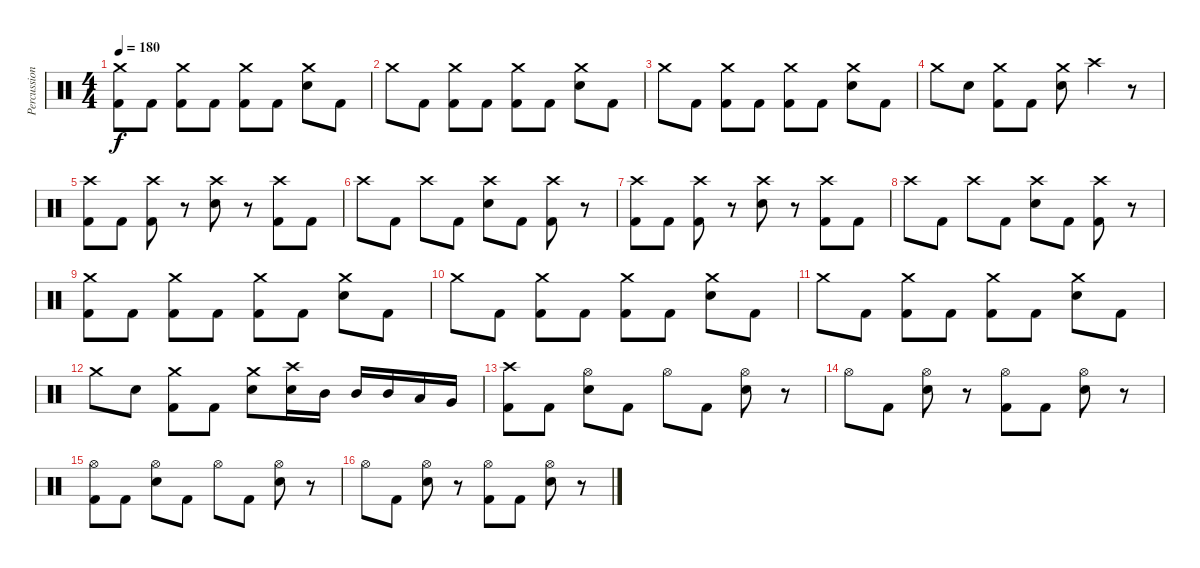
\track ("Percussion" "Percussion") {instrument percussion}
\staff {score}
\articulation defaults
\ts (4 4)
\tempo 180
\clef neutral
\ks c
("Crash medium (hit)" "Kick (hit) 2").8{dy f} "Kick (hit) 2".8 ("Crash medium (hit)" "Kick (hit) 2").8 "Kick (hit) 2".8 ("Crash medium (hit)" "Kick (hit) 2").8 "Kick (hit) 2".8 ("Crash medium (hit)" "Snare (hit) 2").8 "Kick (hit) 2".8 |
"Crash medium (hit)".8 "Kick (hit) 2".8 ("Crash medium (hit)" "Kick (hit) 2").8 "Kick (hit) 2".8 ("Crash medium (hit)" "Kick (hit) 2").8 "Kick (hit) 2".8 ("Crash medium (hit)" "Snare (hit) 2").8 "Kick (hit) 2".8 |
"Crash medium (hit)".8 "Kick (hit) 2".8 ("Crash medium (hit)" "Kick (hit) 2").8 "Kick (hit) 2".8 ("Crash medium (hit)" "Kick (hit) 2").8 "Kick (hit) 2".8 ("Crash medium (hit)" "Snare (hit) 2").8 "Kick (hit) 2".8 |
"Crash medium (hit)".8 "Snare (hit) 2".8 ("Crash medium (hit)" "Kick (hit) 2").8 "Kick (hit) 2".8 ("Crash medium (hit)" "Snare (hit) 2").8 "Crash high (hit)".4 r.8 |
("Crash high (hit)" "Kick (hit) 2").8 "Kick (hit) 2".8 ("Crash high (hit)" "Kick (hit) 2").8 r.8 ("Crash high (hit)" "Snare (hit) 2").8 r.8 ("Crash high (hit)" "Kick (hit) 2").8 "Kick (hit) 2".8 |
"Crash high (hit)".8 "Kick (hit) 2".8 "Crash high (hit)".8 "Kick (hit) 2".8 ("Crash high (hit)" "Snare (hit) 2").8 "Kick (hit) 2".8 ("Crash high (hit)" "Kick (hit) 2").8 r.8 |
("Crash high (hit)" "Kick (hit) 2").8 "Kick (hit) 2".8 ("Crash high (hit)" "Kick (hit) 2").8 r.8 ("Crash high (hit)" "Snare (hit) 2").8 r.8 ("Crash high (hit)" "Kick (hit) 2").8 "Kick (hit) 2".8 |
"Crash high (hit)".8 "Kick (hit) 2".8 "Crash high (hit)".8 "Kick (hit) 2".8 ("Crash high (hit)" "Snare (hit) 2").8 "Kick (hit) 2".8 ("Crash high (hit)" "Kick (hit) 2").8 r.8 |
("Crash medium (hit)" "Kick (hit) 2").8 "Kick (hit) 2".8 ("Crash medium (hit)" "Kick (hit) 2").8 "Kick (hit) 2".8 ("Crash medium (hit)" "Kick (hit) 2").8 "Kick (hit) 2".8 ("Crash medium (hit)" "Snare (hit) 2").8 "Kick (hit) 2".8 |
"Crash medium (hit)".8 "Kick (hit) 2".8 ("Crash medium (hit)" "Kick (hit) 2").8 "Kick (hit) 2".8 ("Crash medium (hit)" "Kick (hit) 2").8 "Kick (hit) 2".8 ("Crash medium (hit)" "Snare (hit) 2").8 "Kick (hit) 2".8 |
"Crash medium (hit)".8 "Kick (hit) 2".8 ("Crash medium (hit)" "Kick (hit) 2").8 "Kick (hit) 2".8 ("Crash medium (hit)" "Kick (hit) 2").8 "Kick (hit) 2".8 ("Crash medium (hit)" "Snare (hit) 2").8 "Kick (hit) 2".8 |
"Crash medium (hit)".8 "Snare (hit) 2".8 ("Crash medium (hit)" "Kick (hit) 2").8 "Kick (hit) 2".8 ("Crash medium (hit)" "Snare (hit) 2").8 ("Crash high (hit)" "Snare (hit) 2").16 "Mid Tom (hit)".16 "Mid Tom (hit)".16 "Mid Tom (hit)".16 "Low Tom (hit)".16 "Very Low Tom (hit)".16 |
("Crash high (hit)" "Kick (hit) 2").8 "Kick (hit) 2".8 ("Hi-Hat (open)" "Snare (hit) 2").8 "Kick (hit) 2".8 "Hi-Hat (open)".8 "Kick (hit) 2".8 ("Hi-Hat (open)" "Snare (hit) 2").8 r.8 |
"Hi-Hat (open)".8 "Kick (hit) 2".8 ("Hi-Hat (open)" "Snare (hit) 2").8 r.8 ("Hi-Hat (open)" "Kick (hit) 2").8 "Kick (hit) 2".8 ("Hi-Hat (open)" "Snare (hit) 2").8 r.8 |
("Hi-Hat (open)" "Kick (hit) 2").8 "Kick (hit) 2".8 ("Hi-Hat (open)" "Snare (hit) 2").8 "Kick (hit) 2".8 "Hi-Hat (open)".8 "Kick (hit) 2".8 ("Hi-Hat (open)" "Snare (hit) 2").8 r.8 |
"Hi-Hat (open)".8 "Kick (hit) 2".8 ("Hi-Hat (open)" "Snare (hit) 2").8 r.8 ("Hi-Hat (open)" "Kick (hit) 2").8 "Kick (hit) 2".8 ("Hi-Hat (open)" "Snare (hit) 2").8 r.8
